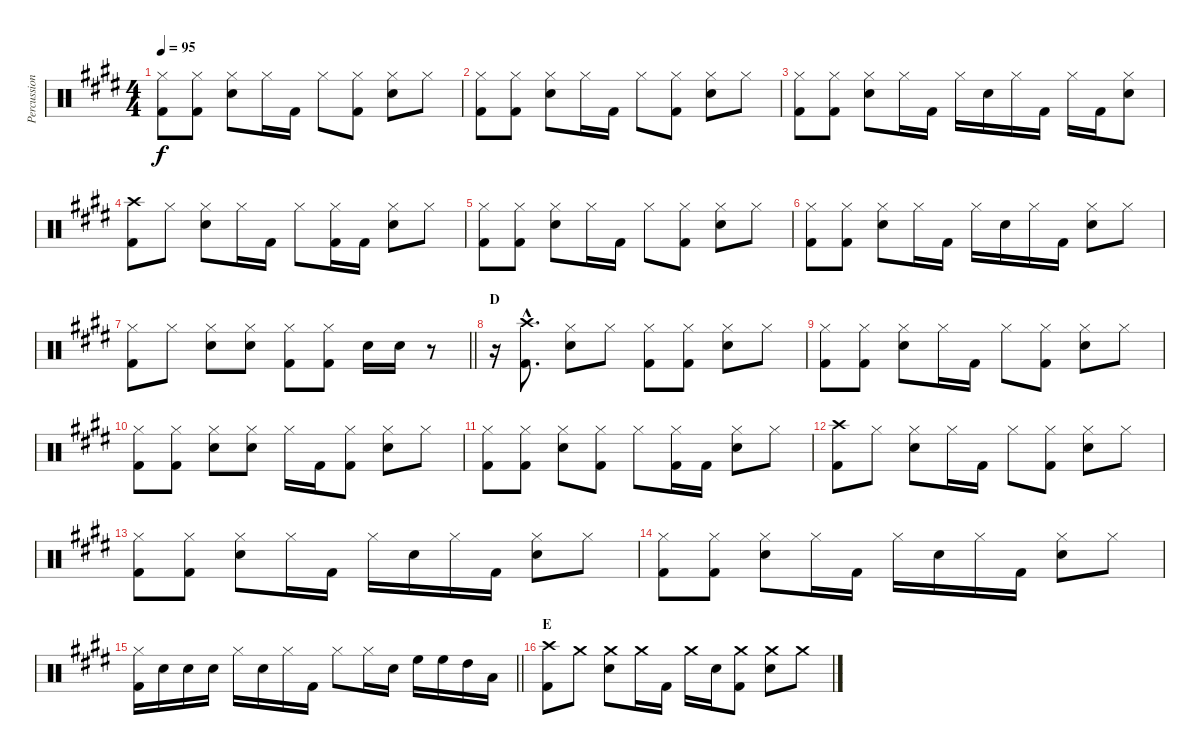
\track ("Percussion" "Percussion") {instrument percussion}
\staff {score}
\articulation defaults
\ts (4 4)
\tempo 95
\clef neutral
\ks e
("Hi-Hat (closed)" "Kick (hit) 2").8{dy f} ("Hi-Hat (closed)" "Kick (hit) 2").8 ("Hi-Hat (closed)" "Snare (hit) 2").8 "Hi-Hat (closed)".16 "Kick (hit) 2".16 "Hi-Hat (closed)".8 ("Hi-Hat (closed)" "Kick (hit) 2").8 ("Hi-Hat (closed)" "Snare (hit) 2").8 "Hi-Hat (closed)".8 |
("Hi-Hat (closed)" "Kick (hit) 2").8 ("Hi-Hat (closed)" "Kick (hit) 2").8 ("Hi-Hat (closed)" "Snare (hit) 2").8 "Hi-Hat (closed)".16 "Kick (hit) 2".16 "Hi-Hat (closed)".8 ("Hi-Hat (closed)" "Kick (hit) 2").8 ("Hi-Hat (closed)" "Snare (hit) 2").8 "Hi-Hat (closed)".8 |
("Hi-Hat (closed)" "Kick (hit) 2").8 ("Hi-Hat (closed)" "Kick (hit) 2").8 ("Hi-Hat (closed)" "Snare (hit) 2").8 "Hi-Hat (closed)".16 "Kick (hit) 2".16 "Hi-Hat (closed)".16 "Snare (hit) 2".16 "Hi-Hat (closed)".16 "Kick (hit) 2".16 "Hi-Hat (closed)".16 "Kick (hit) 2".16 ("Hi-Hat (closed)" "Snare (hit) 2").8 |
("Crash high (hit)" "Kick (hit) 2").8 "Hi-Hat (closed)".8 ("Hi-Hat (closed)" "Snare (hit) 2").8 "Hi-Hat (closed)".16 "Kick (hit) 2".16 "Hi-Hat (closed)".8 ("Hi-Hat (closed)" "Kick (hit) 2").16 "Kick (hit) 2".16 ("Hi-Hat (closed)" "Snare (hit) 2").8 "Hi-Hat (closed)".8 |
("Hi-Hat (closed)" "Kick (hit) 2").8 ("Hi-Hat (closed)" "Kick (hit) 2").8 ("Hi-Hat (closed)" "Snare (hit) 2").8 "Hi-Hat (closed)".16 "Kick (hit) 2".16 "Hi-Hat (closed)".8 ("Hi-Hat (closed)" "Kick (hit) 2").8 ("Hi-Hat (closed)" "Snare (hit) 2").8 "Hi-Hat (closed)".8 |
("Hi-Hat (closed)" "Kick (hit) 2").8 ("Hi-Hat (closed)" "Kick (hit) 2").8 ("Hi-Hat (closed)" "Snare (hit) 2").8 "Hi-Hat (closed)".16 "Kick (hit) 2".16 "Hi-Hat (closed)".16 "Snare (hit) 2".16 "Hi-Hat (closed)".16 "Kick (hit) 2".16 ("Hi-Hat (closed)" "Snare (hit) 2").8 "Hi-Hat (closed)".8 |
\barLineRight lightlight
("Hi-Hat (closed)" "Kick (hit) 2").8 "Hi-Hat (closed)".8 ("Hi-Hat (closed)" "Snare (hit) 2").8 ("Hi-Hat (closed)" "Snare (hit) 2").8 ("Hi-Hat (closed)" "Kick (hit) 2").8 ("Hi-Hat (closed)" "Kick (hit) 2").8 "Snare (hit) 2".16 "Snare (hit) 2".16 r.8 |
\section ("" "D")
r.16 ("Crash high (hit)"{hac} "Kick (hit) 2"{hac}).8{d} ("Hi-Hat (closed)" "Snare (hit) 2").8 "Hi-Hat (closed)".8 ("Hi-Hat (closed)" "Kick (hit) 2").8 ("Hi-Hat (closed)" "Kick (hit) 2").8 ("Hi-Hat (closed)" "Snare (hit) 2").8 "Hi-Hat (closed)".8 |
("Hi-Hat (closed)" "Kick (hit) 2").8 ("Hi-Hat (closed)" "Kick (hit) 2").8 ("Hi-Hat (closed)" "Snare (hit) 2").8 "Hi-Hat (closed)".16 "Kick (hit) 2".16 "Hi-Hat (closed)".8 ("Hi-Hat (closed)" "Kick (hit) 2").8 ("Hi-Hat (closed)" "Snare (hit) 2").8 "Hi-Hat (closed)".8 |
("Hi-Hat (closed)" "Kick (hit) 2").8 ("Hi-Hat (closed)" "Kick (hit) 2").8 ("Hi-Hat (closed)" "Snare (hit) 2").8 ("Hi-Hat (closed)" "Snare (hit) 2").8 "Hi-Hat (closed)".16 "Kick (hit) 2".16 ("Hi-Hat (closed)" "Kick (hit) 2").8 ("Hi-Hat (closed)" "Snare (hit) 2").8 "Hi-Hat (closed)".8 |
("Hi-Hat (closed)" "Kick (hit) 2").8 ("Hi-Hat (closed)" "Kick (hit) 2").8 ("Hi-Hat (closed)" "Snare (hit) 2").8 ("Hi-Hat (closed)" "Kick (hit) 2").8 "Hi-Hat (closed)".8 ("Hi-Hat (closed)" "Kick (hit) 2").16 "Kick (hit) 2".16 ("Hi-Hat (closed)" "Snare (hit) 2").8 "Hi-Hat (closed)".8 |
("Crash high (hit)" "Kick (hit) 2").8 "Hi-Hat (closed)".8 ("Hi-Hat (closed)" "Snare (hit) 2").8 "Hi-Hat (closed)".16 "Kick (hit) 2".16 "Hi-Hat (closed)".8 ("Hi-Hat (closed)" "Kick (hit) 2").8 ("Hi-Hat (closed)" "Snare (hit) 2").8 "Hi-Hat (closed)".8 |
("Hi-Hat (closed)" "Kick (hit) 2").8 ("Hi-Hat (closed)" "Kick (hit) 2").8 ("Hi-Hat (closed)" "Snare (hit) 2").8 "Hi-Hat (closed)".16 "Kick (hit) 2".16 "Hi-Hat (closed)".16 "Snare (hit) 2".16 "Hi-Hat (closed)".16 "Kick (hit) 2".16 ("Hi-Hat (closed)" "Snare (hit) 2").8 "Hi-Hat (closed)".8 |
("Hi-Hat (closed)" "Kick (hit) 2").8 ("Hi-Hat (closed)" "Kick (hit) 2").8 ("Hi-Hat (closed)" "Snare (hit) 2").8 "Hi-Hat (closed)".16 "Kick (hit) 2".16 "Hi-Hat (closed)".16 "Snare (hit) 2".16 "Hi-Hat (closed)".16 "Kick (hit) 2".16 ("Hi-Hat (closed)" "Snare (hit) 2").8 "Hi-Hat (closed)".8 |
\barLineRight lightlight
("Hi-Hat (closed)" "Kick (hit) 2").16 "Snare (hit) 2".16 "Snare (hit) 2".16 "Snare (hit) 2".16 "Hi-Hat (closed)".16 "Snare (hit) 2".16 "Hi-Hat (closed)".16 "Kick (hit) 2".16 "Hi-Hat (closed)".8 "Hi-Hat (closed)".16 "Snare (hit) 2".16 "High Floor Tom (hit)".16 "High Floor Tom (hit)".16 "High Tom (hit)".16 "Low Tom (hit)".16 |
\section ("" "E")
("Crash high (hit)" "Kick (hit) 2").8 "Crash medium (hit)".8 ("Crash medium (hit)" "Snare (hit) 2").8 "Crash medium (hit)".16 "Kick (hit) 2".16 "Crash medium (hit)".16 "Snare (hit) 2".16 ("Crash medium (hit)" "Kick (hit) 2").8 ("Crash medium (hit)" "Snare (hit) 2").8 "Crash medium (hit)".8
